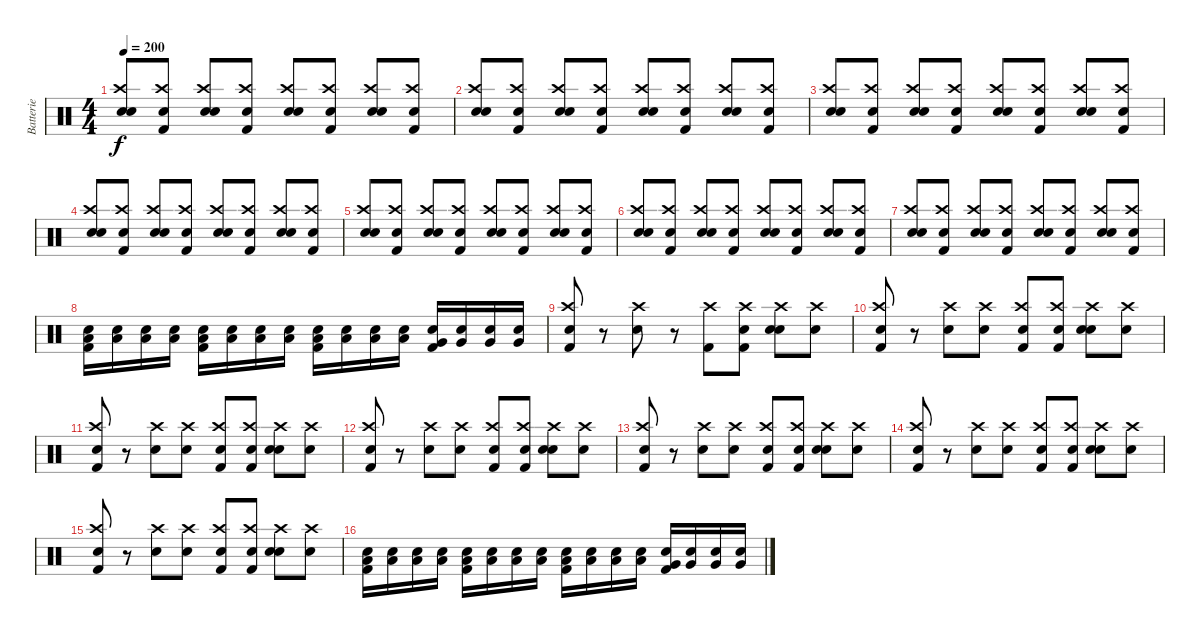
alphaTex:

\track ("Batterie" "Batterie") {instrument percussion}
\staff {score}
\articulation defaults
\ts (4 4)
\tempo 200
\clef neutral
\ks c
("Snare (hit)" "Crash high (hit)" "Electric Snare (hit)").8{dy f} ("Snare (hit)" "Crash high (hit)" "Kick (hit) 2").8 ("Snare (hit)" "Crash high (hit)" "Electric Snare (hit)").8 ("Snare (hit)" "Crash high (hit)" "Kick (hit) 2").8 ("Snare (hit)" "Crash high (hit)" "Electric Snare (hit)").8 ("Snare (hit)" "Crash high (hit)" "Kick (hit) 2").8 ("Snare (hit)" "Crash high (hit)" "Electric Snare (hit)").8 ("Snare (hit)" "Crash high (hit)" "Kick (hit) 2").8 |
("Snare (hit)" "Crash high (hit)" "Electric Snare (hit)").8 ("Snare (hit)" "Crash high (hit)" "Kick (hit) 2").8 ("Snare (hit)" "Crash high (hit)" "Electric Snare (hit)").8 ("Snare (hit)" "Crash high (hit)" "Kick (hit) 2").8 ("Snare (hit)" "Crash high (hit)" "Electric Snare (hit)").8 ("Snare (hit)" "Crash high (hit)" "Kick (hit) 2").8 ("Snare (hit)" "Crash high (hit)" "Electric Snare (hit)").8 ("Snare (hit)" "Crash high (hit)" "Kick (hit) 2").8 |
("Snare (hit)" "Crash high (hit)" "Electric Snare (hit)").8 ("Snare (hit)" "Crash high (hit)" "Kick (hit) 2").8 ("Snare (hit)" "Crash high (hit)" "Electric Snare (hit)").8 ("Snare (hit)" "Crash high (hit)" "Kick (hit) 2").8 ("Snare (hit)" "Crash high (hit)" "Electric Snare (hit)").8 ("Snare (hit)" "Crash high (hit)" "Kick (hit) 2").8 ("Snare (hit)" "Crash high (hit)" "Electric Snare (hit)").8 ("Snare (hit)" "Crash high (hit)" "Kick (hit) 2").8 |
("Snare (hit)" "Crash high (hit)" "Electric Snare (hit)").8 ("Snare (hit)" "Crash high (hit)" "Kick (hit) 2").8 ("Snare (hit)" "Crash high (hit)" "Electric Snare (hit)").8 ("Snare (hit)" "Crash high (hit)" "Kick (hit) 2").8 ("Snare (hit)" "Crash high (hit)" "Electric Snare (hit)").8 ("Snare (hit)" "Crash high (hit)" "Kick (hit) 2").8 ("Snare (hit)" "Crash high (hit)" "Electric Snare (hit)").8 ("Snare (hit)" "Crash high (hit)" "Kick (hit) 2").8 |
("Snare (hit)" "Crash high (hit)" "Electric Snare (hit)").8 ("Snare (hit)" "Crash high (hit)" "Kick (hit) 2").8 ("Snare (hit)" "Crash high (hit)" "Electric Snare (hit)").8 ("Snare (hit)" "Crash high (hit)" "Kick (hit) 2").8 ("Snare (hit)" "Crash high (hit)" "Electric Snare (hit)").8 ("Snare (hit)" "Crash high (hit)" "Kick (hit) 2").8 ("Snare (hit)" "Crash high (hit)" "Electric Snare (hit)").8 ("Snare (hit)" "Crash high (hit)" "Kick (hit) 2").8 |
("Snare (hit)" "Crash high (hit)" "Electric Snare (hit)").8 ("Snare (hit)" "Crash high (hit)" "Kick (hit) 2").8 ("Snare (hit)" "Crash high (hit)" "Electric Snare (hit)").8 ("Snare (hit)" "Crash high (hit)" "Kick (hit) 2").8 ("Snare (hit)" "Crash high (hit)" "Electric Snare (hit)").8 ("Snare (hit)" "Crash high (hit)" "Kick (hit) 2").8 ("Snare (hit)" "Crash high (hit)" "Electric Snare (hit)").8 ("Snare (hit)" "Crash high (hit)" "Kick (hit) 2").8 |
("Snare (hit)" "Crash high (hit)" "Electric Snare (hit)").8 ("Snare (hit)" "Crash high (hit)" "Kick (hit) 2").8 ("Snare (hit)" "Crash high (hit)" "Electric Snare (hit)").8 ("Snare (hit)" "Crash high (hit)" "Kick (hit) 2").8 ("Snare (hit)" "Crash high (hit)" "Electric Snare (hit)").8 ("Snare (hit)" "Crash high (hit)" "Kick (hit) 2").8 ("Snare (hit)" "Crash high (hit)" "Electric Snare (hit)").8 ("Snare (hit)" "Crash high (hit)" "Kick (hit) 2").8 |
("Snare (hit)" "Kick (hit) 2" "Low Floor Tom (hit)").16 ("Snare (hit)" "Low Floor Tom (hit)").16 ("Snare (hit)" "Low Floor Tom (hit)").16 ("Snare (hit)" "Low Floor Tom (hit)").16 ("Snare (hit)" "Kick (hit) 2" "Low Floor Tom (hit)").16 ("Snare (hit)" "Low Floor Tom (hit)").16 ("Snare (hit)" "Low Floor Tom (hit)").16 ("Snare (hit)" "Low Floor Tom (hit)").16 ("Snare (hit)" "Kick (hit) 2" "Low Floor Tom (hit)").16 ("Snare (hit)" "Low Floor Tom (hit)").16 ("Snare (hit)" "Low Floor Tom (hit)").16 ("Snare (hit)" "Low Floor Tom (hit)").16 ("Snare (hit)" "Kick (hit) 2" "Very Low Tom (hit)").16 ("Snare (hit)" "Very Low Tom (hit)").16 ("Snare (hit)" "Very Low Tom (hit)").16 ("Snare (hit)" "Very Low Tom (hit)").16 |
("Snare (hit)" "Crash high (hit)" "Kick (hit) 2").8 r.8 ("Crash high (hit)" "Electric Snare (hit)").8 r.8 ("Crash high (hit)" "Kick (hit) 2").8 ("Snare (hit)" "Crash high (hit)" "Kick (hit) 2").8 ("Snare (hit)" "Crash high (hit)" "Electric Snare (hit)").8 ("Snare (hit)" "Crash high (hit)").8 |
("Snare (hit)" "Crash high (hit)" "Kick (hit) 2").8 r.8 ("Crash high (hit)" "Electric Snare (hit)").8 ("Snare (hit)" "Crash high (hit)").8 ("Snare (hit)" "Crash high (hit)" "Kick (hit) 2").8 ("Snare (hit)" "Crash high (hit)" "Kick (hit) 2").8 ("Snare (hit)" "Crash high (hit)" "Electric Snare (hit)").8 ("Snare (hit)" "Crash high (hit)").8 |
("Snare (hit)" "Crash high (hit)" "Kick (hit) 2").8 r.8 ("Crash high (hit)" "Electric Snare (hit)").8 ("Snare (hit)" "Crash high (hit)").8 ("Snare (hit)" "Crash high (hit)" "Kick (hit) 2").8 ("Snare (hit)" "Crash high (hit)" "Kick (hit) 2").8 ("Snare (hit)" "Crash high (hit)" "Electric Snare (hit)").8 ("Snare (hit)" "Crash high (hit)").8 |
("Snare (hit)" "Crash high (hit)" "Kick (hit) 2").8 r.8 ("Crash high (hit)" "Electric Snare (hit)").8 ("Snare (hit)" "Crash high (hit)").8 ("Snare (hit)" "Crash high (hit)" "Kick (hit) 2").8 ("Snare (hit)" "Crash high (hit)" "Kick (hit) 2").8 ("Snare (hit)" "Crash high (hit)" "Electric Snare (hit)").8 ("Snare (hit)" "Crash high (hit)").8 |
("Snare (hit)" "Crash high (hit)" "Kick (hit) 2").8 r.8 ("Crash high (hit)" "Electric Snare (hit)").8 ("Snare (hit)" "Crash high (hit)").8 ("Snare (hit)" "Crash high (hit)" "Kick (hit) 2").8 ("Snare (hit)" "Crash high (hit)" "Kick (hit) 2").8 ("Snare (hit)" "Crash high (hit)" "Electric Snare (hit)").8 ("Snare (hit)" "Crash high (hit)").8 |
("Snare (hit)" "Crash high (hit)" "Kick (hit) 2").8 r.8 ("Crash high (hit)" "Electric Snare (hit)").8 ("Snare (hit)" "Crash high (hit)").8 ("Snare (hit)" "Crash high (hit)" "Kick (hit) 2").8 ("Snare (hit)" "Crash high (hit)" "Kick (hit) 2").8 ("Snare (hit)" "Crash high (hit)" "Electric Snare (hit)").8 ("Snare (hit)" "Crash high (hit)").8 |
("Snare (hit)" "Crash high (hit)" "Kick (hit) 2").8 r.8 ("Crash high (hit)" "Electric Snare (hit)").8 ("Snare (hit)" "Crash high (hit)").8 ("Snare (hit)" "Crash high (hit)" "Kick (hit) 2").8 ("Snare (hit)" "Crash high (hit)" "Kick (hit) 2").8 ("Snare (hit)" "Crash high (hit)" "Electric Snare (hit)").8 ("Snare (hit)" "Crash high (hit)").8 |
("Snare (hit)" "Kick (hit) 2" "Low Floor Tom (hit)").16 ("Snare (hit)" "Low Floor Tom (hit)").16 ("Snare (hit)" "Low Floor Tom (hit)").16 ("Snare (hit)" "Low Floor Tom (hit)").16 ("Snare (hit)" "Kick (hit) 2" "Low Floor Tom (hit)").16 ("Snare (hit)" "Low Floor Tom (hit)").16 ("Snare (hit)" "Low Floor Tom (hit)").16 ("Snare (hit)" "Low Floor Tom (hit)").16 ("Snare (hit)" "Kick (hit) 2" "Low Floor Tom (hit)").16 ("Snare (hit)" "Low Floor Tom (hit)").16 ("Snare (hit)" "Low Floor Tom (hit)").16 ("Snare (hit)" "Low Floor Tom (hit)").16 ("Snare (hit)" "Kick (hit) 2" "Very Low Tom (hit)").16 ("Snare (hit)" "Very Low Tom (hit)").16 ("Snare (hit)" "Very Low Tom (hit)").16 ("Snare (hit)" "Very Low Tom (hit)").16
